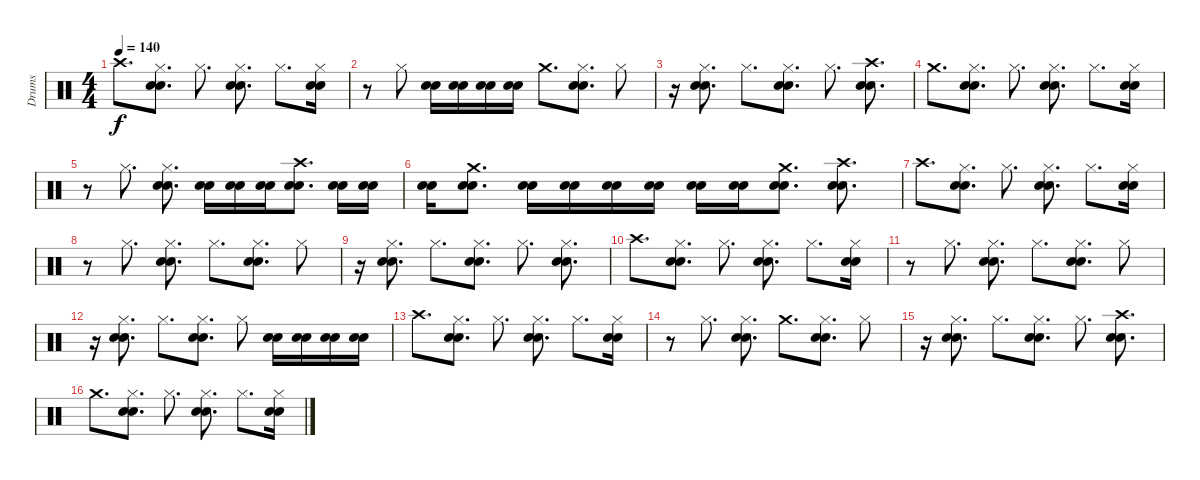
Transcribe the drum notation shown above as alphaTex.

\track ("Drums" "Drums") {instrument percussion}
\staff {score}
\articulation defaults
\ts (4 4)
\tempo 140
\clef neutral
\ks c "Crash high (hit)".8{d dy f}
("Hi-Hat (closed)" "Electric Snare (hit)" "Snare (hit) 2").8{d} "Hi-Hat (closed)".8{d} ("Hi-Hat (closed)" "Electric Snare (hit)" "Snare (hit) 2").8{d} "Hi-Hat (closed)".8{d} ("Hi-Hat (closed)" "Electric Snare (hit)" "Snare (hit) 2").16 |
r.8 "Hi-Hat (closed)".8 ("Electric Snare (hit)" "Snare (hit) 2").16 ("Electric Snare (hit)" "Snare (hit) 2").16 ("Electric Snare (hit)" "Snare (hit) 2").16 ("Electric Snare (hit)" "Snare (hit) 2").16 "Crash medium (hit)".8{d} ("Hi-Hat (closed)" "Electric Snare (hit)" "Snare (hit) 2").8{d} "Hi-Hat (closed)".8 |
r.16 ("Hi-Hat (closed)" "Electric Snare (hit)" "Snare (hit) 2").8{d} "Hi-Hat (closed)".8{d} ("Hi-Hat (closed)" "Electric Snare (hit)" "Snare (hit) 2").8{d} "Hi-Hat (closed)".8{d} ("Crash high (hit)" "Electric Snare (hit)" "Snare (hit) 2").8{d} |
"Crash medium (hit)".8{d} ("Hi-Hat (closed)" "Electric Snare (hit)" "Snare (hit) 2").8{d} "Hi-Hat (closed)".8{d} ("Hi-Hat (closed)" "Electric Snare (hit)" "Snare (hit) 2").8{d} "Hi-Hat (closed)".8{d} ("Hi-Hat (closed)" "Electric Snare (hit)" "Snare (hit) 2").16 |
r.8 "Hi-Hat (closed)".8{d} ("Hi-Hat (closed)" "Electric Snare (hit)" "Snare (hit) 2").8{d} ("Electric Snare (hit)" "Snare (hit) 2").16 ("Electric Snare (hit)" "Snare (hit) 2").16 ("Electric Snare (hit)" "Snare (hit) 2").16 ("Electric Snare (hit)" "Snare (hit) 2" "Crash high (hit)").8{d} ("Electric Snare (hit)" "Snare (hit) 2").16 ("Electric Snare (hit)" "Snare (hit) 2").16 |
("Electric Snare (hit)" "Snare (hit) 2").16 ("Electric Snare (hit)" "Snare (hit) 2" "Crash medium (hit)").8{d} ("Electric Snare (hit)" "Snare (hit) 2").16 ("Electric Snare (hit)" "Snare (hit) 2").16 ("Electric Snare (hit)" "Snare (hit) 2").16 ("Electric Snare (hit)" "Snare (hit) 2").16 ("Electric Snare (hit)" "Snare (hit) 2").16 ("Electric Snare (hit)" "Snare (hit) 2").16 ("Electric Snare (hit)" "Snare (hit) 2" "Crash medium (hit)").8{d} ("Electric Snare (hit)" "Snare (hit) 2" "Crash high (hit)").8{d} |
"Crash high (hit)".8{d} ("Hi-Hat (closed)" "Electric Snare (hit)" "Snare (hit) 2").8{d} "Hi-Hat (closed)".8{d} ("Hi-Hat (closed)" "Electric Snare (hit)" "Snare (hit) 2").8{d} "Hi-Hat (closed)".8{d} ("Hi-Hat (closed)" "Electric Snare (hit)" "Snare (hit) 2").16 |
r.8 "Hi-Hat (closed)".8{d} ("Hi-Hat (closed)" "Electric Snare (hit)" "Snare (hit) 2").8{d} "Hi-Hat (closed)".8{d} ("Hi-Hat (closed)" "Electric Snare (hit)" "Snare (hit) 2").8{d} "Hi-Hat (closed)".8 |
r.16 ("Hi-Hat (closed)" "Electric Snare (hit)" "Snare (hit) 2").8{d} "Hi-Hat (closed)".8{d} ("Hi-Hat (closed)" "Electric Snare (hit)" "Snare (hit) 2").8{d} "Hi-Hat (closed)".8{d} ("Hi-Hat (closed)" "Electric Snare (hit)" "Snare (hit) 2").8{d} |
"Crash high (hit)".8{d} ("Hi-Hat (closed)" "Electric Snare (hit)" "Snare (hit) 2").8{d} "Hi-Hat (closed)".8{d} ("Hi-Hat (closed)" "Electric Snare (hit)" "Snare (hit) 2").8{d} "Hi-Hat (closed)".8{d} ("Hi-Hat (closed)" "Electric Snare (hit)" "Snare (hit) 2").16 |
r.8 "Hi-Hat (closed)".8{d} ("Hi-Hat (closed)" "Electric Snare (hit)" "Snare (hit) 2").8{d} "Hi-Hat (closed)".8{d} ("Hi-Hat (closed)" "Electric Snare (hit)" "Snare (hit) 2").8{d} "Hi-Hat (closed)".8 |
r.16 ("Hi-Hat (closed)" "Electric Snare (hit)" "Snare (hit) 2").8{d} "Hi-Hat (closed)".8{d} ("Hi-Hat (closed)" "Electric Snare (hit)" "Snare (hit) 2").8{d} "Hi-Hat (closed)".8 ("Electric Snare (hit)" "Snare (hit) 2").16 ("Electric Snare (hit)" "Snare (hit) 2").16 ("Electric Snare (hit)" "Snare (hit) 2").16 ("Electric Snare (hit)" "Snare (hit) 2").16 |
"Crash high (hit)".8{d} ("Hi-Hat (closed)" "Electric Snare (hit)" "Snare (hit) 2").8{d} "Hi-Hat (closed)".8{d} ("Hi-Hat (closed)" "Electric Snare (hit)" "Snare (hit) 2").8{d} "Hi-Hat (closed)".8{d} ("Hi-Hat (closed)" "Electric Snare (hit)" "Snare (hit) 2").16 |
r.8 "Hi-Hat (closed)".8{d} ("Hi-Hat (closed)" "Electric Snare (hit)" "Snare (hit) 2").8{d} "Crash medium (hit)".8{d} ("Hi-Hat (closed)" "Electric Snare (hit)" "Snare (hit) 2").8{d} "Hi-Hat (closed)".8 |
r.16 ("Hi-Hat (closed)" "Electric Snare (hit)" "Snare (hit) 2").8{d} "Hi-Hat (closed)".8{d} ("Hi-Hat (closed)" "Electric Snare (hit)" "Snare (hit) 2").8{d} "Hi-Hat (closed)".8{d} ("Crash high (hit)" "Electric Snare (hit)" "Snare (hit) 2").8{d} |
"Crash medium (hit)".8{d} ("Hi-Hat (closed)" "Electric Snare (hit)" "Snare (hit) 2").8{d} "Hi-Hat (closed)".8{d} ("Hi-Hat (closed)" "Electric Snare (hit)" "Snare (hit) 2").8{d} "Hi-Hat (closed)".8{d} ("Hi-Hat (closed)" "Electric Snare (hit)" "Snare (hit) 2").16
